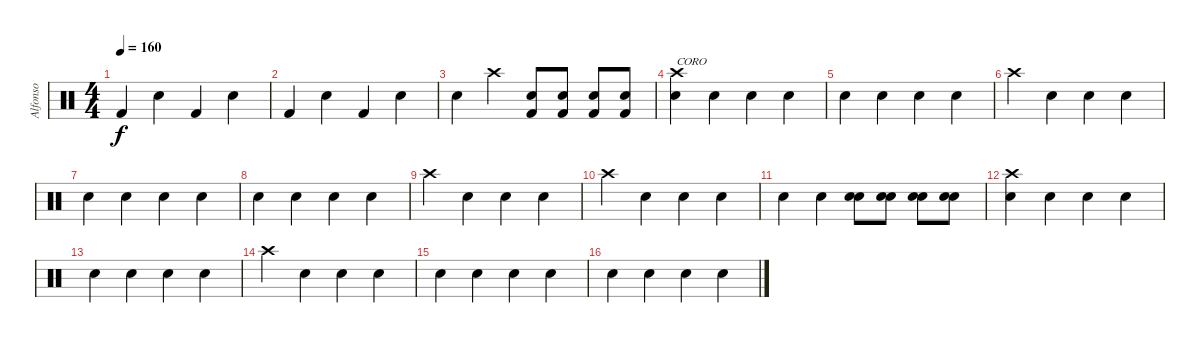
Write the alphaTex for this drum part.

\track ("Alfonso" "Alfonso") {instrument percussion}
\staff {score}
\articulation defaults
\ts (4 4)
\tempo 160
\clef neutral
\ks c "Kick (hit) 2".4{dy f} "Electric Snare (hit)".4 "Kick (hit) 2".4 "Electric Snare (hit)".4
|
"Kick (hit) 2".4 "Electric Snare (hit)".4 "Kick (hit) 2".4 "Electric Snare (hit)".4 |
"Electric Snare (hit)".4 "Crash high (hit)".4 ("Electric Snare (hit)" "Kick (hit) 2").8 ("Electric Snare (hit)" "Kick (hit) 2").8 ("Electric Snare (hit)" "Kick (hit) 2").8 ("Electric Snare (hit)" "Kick (hit) 2").8 |
("Electric Snare (hit)" "Crash high (hit)").4{txt "CORO"} "Electric Snare (hit)".4 "Electric Snare (hit)".4 "Electric Snare (hit)".4 |
"Electric Snare (hit)".4 "Electric Snare (hit)".4 "Electric Snare (hit)".4 "Electric Snare (hit)".4 |
"Crash high (hit)".4 "Electric Snare (hit)".4 "Electric Snare (hit)".4 "Electric Snare (hit)".4 |
"Electric Snare (hit)".4 "Electric Snare (hit)".4 "Electric Snare (hit)".4 "Electric Snare (hit)".4 |
"Electric Snare (hit)".4 "Electric Snare (hit)".4 "Electric Snare (hit)".4 "Electric Snare (hit)".4 |
"Crash high (hit)".4 "Electric Snare (hit)".4 "Electric Snare (hit)".4 "Electric Snare (hit)".4 |
"Crash high (hit)".4 "Electric Snare (hit)".4 "Electric Snare (hit)".4 "Electric Snare (hit)".4 |
"Electric Snare (hit)".4 "Electric Snare (hit)".4 ("Electric Snare (hit)" "Snare (hit) 2").8 ("Electric Snare (hit)" "Snare (hit) 2").8 ("Electric Snare (hit)" "Snare (hit) 2").8 ("Electric Snare (hit)" "Snare (hit) 2").8 |
("Electric Snare (hit)" "Crash high (hit)").4 "Electric Snare (hit)".4 "Electric Snare (hit)".4 "Electric Snare (hit)".4 |
"Electric Snare (hit)".4 "Electric Snare (hit)".4 "Electric Snare (hit)".4 "Electric Snare (hit)".4 |
"Crash high (hit)".4 "Electric Snare (hit)".4 "Electric Snare (hit)".4 "Electric Snare (hit)".4 |
"Electric Snare (hit)".4 "Electric Snare (hit)".4 "Electric Snare (hit)".4 "Electric Snare (hit)".4 |
"Electric Snare (hit)".4 "Electric Snare (hit)".4 "Electric Snare (hit)".4 "Electric Snare (hit)".4
